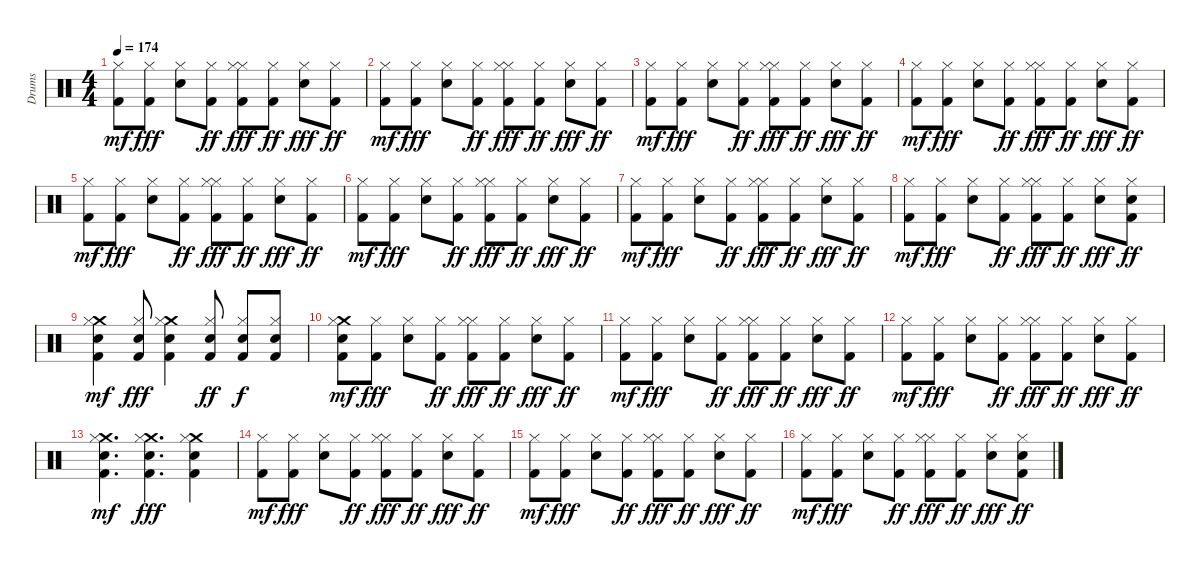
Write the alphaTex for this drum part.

\track ("Drums" "Drums") {instrument percussion}
\staff {score}
\articulation defaults
\ts (4 4)
\tempo 174
\clef neutral
\ks c
("Kick (hit) 2" "Hi-Hat (closed)").8{dy mf} ("Hi-Hat (closed)" "Kick (hit) 2").8{dy fff} ("Hi-Hat (closed)" "Snare (hit) 2").8 ("Hi-Hat (closed)" "Kick (hit) 2").8{dy ff} ("Hi-Hat (closed)" "Hi-Hat (closed)" "Kick (hit) 2").8{dy fff} ("Hi-Hat (closed)" "Kick (hit) 2").8{dy ff} ("Hi-Hat (closed)" "Snare (hit) 2").8{dy fff} ("Hi-Hat (closed)" "Kick (hit) 2").8{dy ff} |
("Kick (hit) 2" "Hi-Hat (closed)").8{dy mf} ("Hi-Hat (closed)" "Kick (hit) 2").8{dy fff} ("Hi-Hat (closed)" "Snare (hit) 2").8 ("Hi-Hat (closed)" "Kick (hit) 2").8{dy ff} ("Hi-Hat (closed)" "Hi-Hat (closed)" "Kick (hit) 2").8{dy fff} ("Hi-Hat (closed)" "Kick (hit) 2").8{dy ff} ("Hi-Hat (closed)" "Snare (hit) 2").8{dy fff} ("Hi-Hat (closed)" "Kick (hit) 2").8{dy ff} |
("Kick (hit) 2" "Hi-Hat (closed)").8{dy mf} ("Hi-Hat (closed)" "Kick (hit) 2").8{dy fff} ("Hi-Hat (closed)" "Snare (hit) 2").8 ("Hi-Hat (closed)" "Kick (hit) 2").8{dy ff} ("Hi-Hat (closed)" "Hi-Hat (closed)" "Kick (hit) 2").8{dy fff} ("Hi-Hat (closed)" "Kick (hit) 2").8{dy ff} ("Hi-Hat (closed)" "Snare (hit) 2").8{dy fff} ("Hi-Hat (closed)" "Kick (hit) 2").8{dy ff} |
("Kick (hit) 2" "Hi-Hat (closed)").8{dy mf} ("Hi-Hat (closed)" "Kick (hit) 2").8{dy fff} ("Hi-Hat (closed)" "Snare (hit) 2").8 ("Hi-Hat (closed)" "Kick (hit) 2").8{dy ff} ("Hi-Hat (closed)" "Hi-Hat (closed)" "Kick (hit) 2").8{dy fff} ("Hi-Hat (closed)" "Kick (hit) 2").8{dy ff} ("Hi-Hat (closed)" "Snare (hit) 2").8{dy fff} ("Hi-Hat (closed)" "Kick (hit) 2").8{dy ff} |
("Kick (hit) 2" "Hi-Hat (closed)").8{dy mf} ("Hi-Hat (closed)" "Kick (hit) 2").8{dy fff} ("Hi-Hat (closed)" "Snare (hit) 2").8 ("Hi-Hat (closed)" "Kick (hit) 2").8{dy ff} ("Hi-Hat (closed)" "Hi-Hat (closed)" "Kick (hit) 2").8{dy fff} ("Hi-Hat (closed)" "Kick (hit) 2").8{dy ff} ("Hi-Hat (closed)" "Snare (hit) 2").8{dy fff} ("Hi-Hat (closed)" "Kick (hit) 2").8{dy ff} |
("Kick (hit) 2" "Hi-Hat (closed)").8{dy mf} ("Hi-Hat (closed)" "Kick (hit) 2").8{dy fff} ("Hi-Hat (closed)" "Snare (hit) 2").8 ("Hi-Hat (closed)" "Kick (hit) 2").8{dy ff} ("Hi-Hat (closed)" "Hi-Hat (closed)" "Kick (hit) 2").8{dy fff} ("Hi-Hat (closed)" "Kick (hit) 2").8{dy ff} ("Hi-Hat (closed)" "Snare (hit) 2").8{dy fff} ("Hi-Hat (closed)" "Kick (hit) 2").8{dy ff} |
("Kick (hit) 2" "Hi-Hat (closed)").8{dy mf} ("Hi-Hat (closed)" "Kick (hit) 2").8{dy fff} ("Hi-Hat (closed)" "Snare (hit) 2").8 ("Hi-Hat (closed)" "Kick (hit) 2").8{dy ff} ("Hi-Hat (closed)" "Hi-Hat (closed)" "Kick (hit) 2").8{dy fff} ("Hi-Hat (closed)" "Kick (hit) 2").8{dy ff} ("Hi-Hat (closed)" "Snare (hit) 2").8{dy fff} ("Hi-Hat (closed)" "Kick (hit) 2").8{dy ff} |
("Kick (hit) 2" "Hi-Hat (closed)").8{dy mf} ("Hi-Hat (closed)" "Kick (hit) 2").8{dy fff} ("Hi-Hat (closed)" "Snare (hit) 2").8 ("Hi-Hat (closed)" "Kick (hit) 2").8{dy ff} ("Hi-Hat (closed)" "Hi-Hat (closed)" "Kick (hit) 2").8{dy fff} ("Hi-Hat (closed)" "Kick (hit) 2").8{dy ff} ("Hi-Hat (closed)" "Snare (hit) 2").8{dy fff} ("Hi-Hat (closed)" "Snare (hit) 2" "Kick (hit) 2").8{dy ff} |
("Crash medium (hit)" "Snare (hit) 2" "Hi-Hat (closed)" "Kick (hit) 2").4{dy mf} ("Hi-Hat (closed)" "Snare (hit) 2" "Kick (hit) 2").8{dy fff} ("Crash medium (hit)" "Snare (hit) 2" "Hi-Hat (closed)" "Kick (hit) 2").4 ("Hi-Hat (closed)" "Snare (hit) 2" "Kick (hit) 2").8{dy ff} ("Snare (hit) 2" "Hi-Hat (closed)" "Kick (hit) 2").8{dy f} ("Snare (hit) 2" "Hi-Hat (closed)" "Kick (hit) 2").8 |
("Crash medium (hit)" "Snare (hit) 2" "Hi-Hat (closed)" "Kick (hit) 2").8{dy mf} ("Hi-Hat (closed)" "Kick (hit) 2").8{dy fff} ("Hi-Hat (closed)" "Snare (hit) 2").8 ("Hi-Hat (closed)" "Kick (hit) 2").8{dy ff} ("Hi-Hat (closed)" "Hi-Hat (closed)" "Kick (hit) 2").8{dy fff} ("Hi-Hat (closed)" "Kick (hit) 2").8{dy ff} ("Hi-Hat (closed)" "Snare (hit) 2").8{dy fff} ("Hi-Hat (closed)" "Kick (hit) 2").8{dy ff} |
("Kick (hit) 2" "Hi-Hat (closed)").8{dy mf} ("Hi-Hat (closed)" "Kick (hit) 2").8{dy fff} ("Hi-Hat (closed)" "Snare (hit) 2").8 ("Hi-Hat (closed)" "Kick (hit) 2").8{dy ff} ("Hi-Hat (closed)" "Hi-Hat (closed)" "Kick (hit) 2").8{dy fff} ("Hi-Hat (closed)" "Kick (hit) 2").8{dy ff} ("Hi-Hat (closed)" "Snare (hit) 2").8{dy fff} ("Hi-Hat (closed)" "Kick (hit) 2").8{dy ff} |
("Kick (hit) 2" "Hi-Hat (closed)").8{dy mf} ("Hi-Hat (closed)" "Kick (hit) 2").8{dy fff} ("Hi-Hat (closed)" "Snare (hit) 2").8 ("Hi-Hat (closed)" "Kick (hit) 2").8{dy ff} ("Hi-Hat (closed)" "Hi-Hat (closed)" "Kick (hit) 2").8{dy fff} ("Hi-Hat (closed)" "Kick (hit) 2").8{dy ff} ("Hi-Hat (closed)" "Snare (hit) 2").8{dy fff} ("Hi-Hat (closed)" "Kick (hit) 2").8{dy ff} |
("Crash medium (hit)" "Snare (hit) 2" "Hi-Hat (closed)" "Kick (hit) 2").4{d dy mf} ("Crash medium (hit)" "Snare (hit) 2" "Hi-Hat (closed)" "Kick (hit) 2").4{d dy fff} ("Crash medium (hit)" "Snare (hit) 2" "Hi-Hat (closed)" "Kick (hit) 2").4 |
("Kick (hit) 2" "Hi-Hat (closed)").8{dy mf} ("Hi-Hat (closed)" "Kick (hit) 2").8{dy fff} ("Hi-Hat (closed)" "Snare (hit) 2").8 ("Hi-Hat (closed)" "Kick (hit) 2").8{dy ff} ("Hi-Hat (closed)" "Hi-Hat (closed)" "Kick (hit) 2").8{dy fff} ("Hi-Hat (closed)" "Kick (hit) 2").8{dy ff} ("Hi-Hat (closed)" "Snare (hit) 2").8{dy fff} ("Hi-Hat (closed)" "Kick (hit) 2").8{dy ff} |
("Kick (hit) 2" "Hi-Hat (closed)").8{dy mf} ("Hi-Hat (closed)" "Kick (hit) 2").8{dy fff} ("Hi-Hat (closed)" "Snare (hit) 2").8 ("Hi-Hat (closed)" "Kick (hit) 2").8{dy ff} ("Hi-Hat (closed)" "Hi-Hat (closed)" "Kick (hit) 2").8{dy fff} ("Hi-Hat (closed)" "Kick (hit) 2").8{dy ff} ("Hi-Hat (closed)" "Snare (hit) 2").8{dy fff} ("Hi-Hat (closed)" "Kick (hit) 2").8{dy ff} |
("Kick (hit) 2" "Hi-Hat (closed)").8{dy mf} ("Hi-Hat (closed)" "Kick (hit) 2").8{dy fff} ("Hi-Hat (closed)" "Snare (hit) 2").8 ("Hi-Hat (closed)" "Kick (hit) 2").8{dy ff} ("Hi-Hat (closed)" "Hi-Hat (closed)" "Kick (hit) 2").8{dy fff} ("Hi-Hat (closed)" "Kick (hit) 2").8{dy ff} ("Hi-Hat (closed)" "Snare (hit) 2").8{dy fff} ("Hi-Hat (closed)" "Snare (hit) 2" "Kick (hit) 2").8{dy ff}
